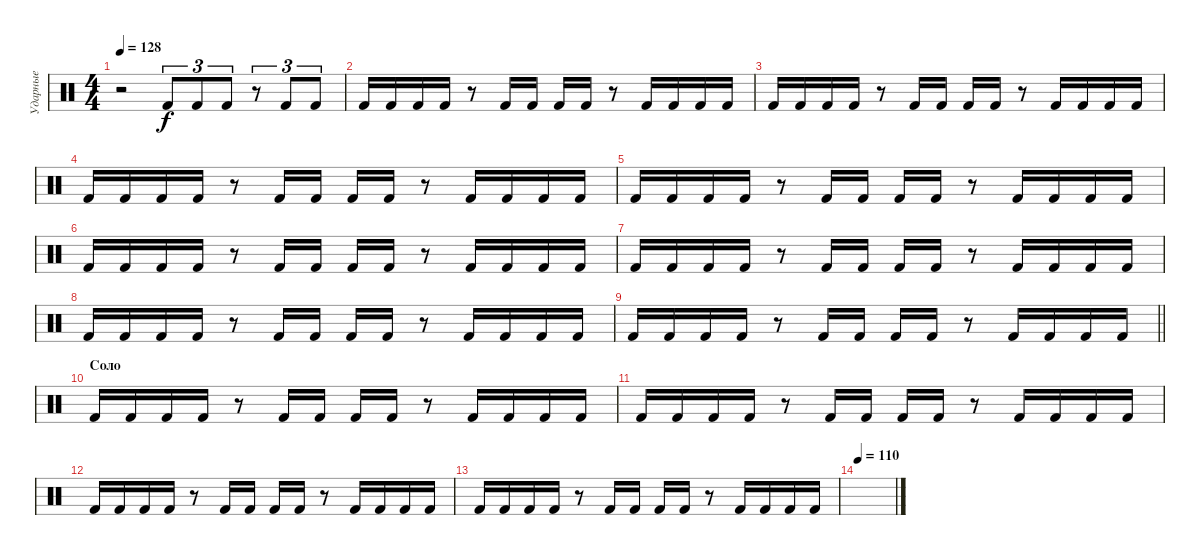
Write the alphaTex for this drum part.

\track ("Ударные" "Ударные") {instrument percussion}
\staff {score}
\articulation defaults
\ts (4 4)
\tempo 128
\clef neutral
\ks c
r.2{dy f} "Kick (hit) 2".8{tu (3 2)} "Kick (hit) 2".8{tu (3 2)} "Kick (hit) 2".8{tu (3 2)} r.8{tu (3 2)} "Kick (hit) 2".8{tu (3 2)} "Kick (hit) 2".8{tu (3 2)} |
"Kick (hit) 2".16 "Kick (hit) 2".16 "Kick (hit) 2".16 "Kick (hit) 2".16 r.8 "Kick (hit) 2".16 "Kick (hit) 2".16 "Kick (hit) 2".16 "Kick (hit) 2".16 r.8 "Kick (hit) 2".16 "Kick (hit) 2".16 "Kick (hit) 2".16 "Kick (hit) 2".16 |
"Kick (hit) 2".16 "Kick (hit) 2".16 "Kick (hit) 2".16 "Kick (hit) 2".16 r.8 "Kick (hit) 2".16 "Kick (hit) 2".16 "Kick (hit) 2".16 "Kick (hit) 2".16 r.8 "Kick (hit) 2".16 "Kick (hit) 2".16 "Kick (hit) 2".16 "Kick (hit) 2".16 |
"Kick (hit) 2".16 "Kick (hit) 2".16 "Kick (hit) 2".16 "Kick (hit) 2".16 r.8 "Kick (hit) 2".16 "Kick (hit) 2".16 "Kick (hit) 2".16 "Kick (hit) 2".16 r.8 "Kick (hit) 2".16 "Kick (hit) 2".16 "Kick (hit) 2".16 "Kick (hit) 2".16 |
"Kick (hit) 2".16 "Kick (hit) 2".16 "Kick (hit) 2".16 "Kick (hit) 2".16 r.8 "Kick (hit) 2".16 "Kick (hit) 2".16 "Kick (hit) 2".16 "Kick (hit) 2".16 r.8 "Kick (hit) 2".16 "Kick (hit) 2".16 "Kick (hit) 2".16 "Kick (hit) 2".16 |
"Kick (hit) 2".16 "Kick (hit) 2".16 "Kick (hit) 2".16 "Kick (hit) 2".16 r.8 "Kick (hit) 2".16 "Kick (hit) 2".16 "Kick (hit) 2".16 "Kick (hit) 2".16 r.8 "Kick (hit) 2".16 "Kick (hit) 2".16 "Kick (hit) 2".16 "Kick (hit) 2".16 |
"Kick (hit) 2".16 "Kick (hit) 2".16 "Kick (hit) 2".16 "Kick (hit) 2".16 r.8 "Kick (hit) 2".16 "Kick (hit) 2".16 "Kick (hit) 2".16 "Kick (hit) 2".16 r.8 "Kick (hit) 2".16 "Kick (hit) 2".16 "Kick (hit) 2".16 "Kick (hit) 2".16 |
"Kick (hit) 2".16 "Kick (hit) 2".16 "Kick (hit) 2".16 "Kick (hit) 2".16 r.8 "Kick (hit) 2".16 "Kick (hit) 2".16 "Kick (hit) 2".16 "Kick (hit) 2".16 r.8 "Kick (hit) 2".16 "Kick (hit) 2".16 "Kick (hit) 2".16 "Kick (hit) 2".16 |
\barLineRight lightlight "Kick (hit) 2".16 "Kick (hit) 2".16 "Kick (hit) 2".16 "Kick (hit) 2".16
r.8 "Kick (hit) 2".16 "Kick (hit) 2".16 "Kick (hit) 2".16 "Kick (hit) 2".16 r.8 "Kick (hit) 2".16 "Kick (hit) 2".16 "Kick (hit) 2".16 "Kick (hit) 2".16 |
\section ("" "Соло")
"Kick (hit) 2".16 "Kick (hit) 2".16 "Kick (hit) 2".16 "Kick (hit) 2".16 r.8 "Kick (hit) 2".16 "Kick (hit) 2".16 "Kick (hit) 2".16 "Kick (hit) 2".16 r.8 "Kick (hit) 2".16 "Kick (hit) 2".16 "Kick (hit) 2".16 "Kick (hit) 2".16 |
"Kick (hit) 2".16 "Kick (hit) 2".16 "Kick (hit) 2".16 "Kick (hit) 2".16 r.8 "Kick (hit) 2".16 "Kick (hit) 2".16 "Kick (hit) 2".16 "Kick (hit) 2".16 r.8 "Kick (hit) 2".16 "Kick (hit) 2".16 "Kick (hit) 2".16 "Kick (hit) 2".16 |
"Kick (hit) 2".16 "Kick (hit) 2".16 "Kick (hit) 2".16 "Kick (hit) 2".16 r.8 "Kick (hit) 2".16 "Kick (hit) 2".16 "Kick (hit) 2".16 "Kick (hit) 2".16 r.8 "Kick (hit) 2".16 "Kick (hit) 2".16 "Kick (hit) 2".16 "Kick (hit) 2".16 |
"Kick (hit) 2".16 "Kick (hit) 2".16 "Kick (hit) 2".16 "Kick (hit) 2".16 r.8 "Kick (hit) 2".16 "Kick (hit) 2".16 "Kick (hit) 2".16 "Kick (hit) 2".16 r.8 "Kick (hit) 2".16 "Kick (hit) 2".16 "Kick (hit) 2".16 "Kick (hit) 2".16 |
\tempo 110
